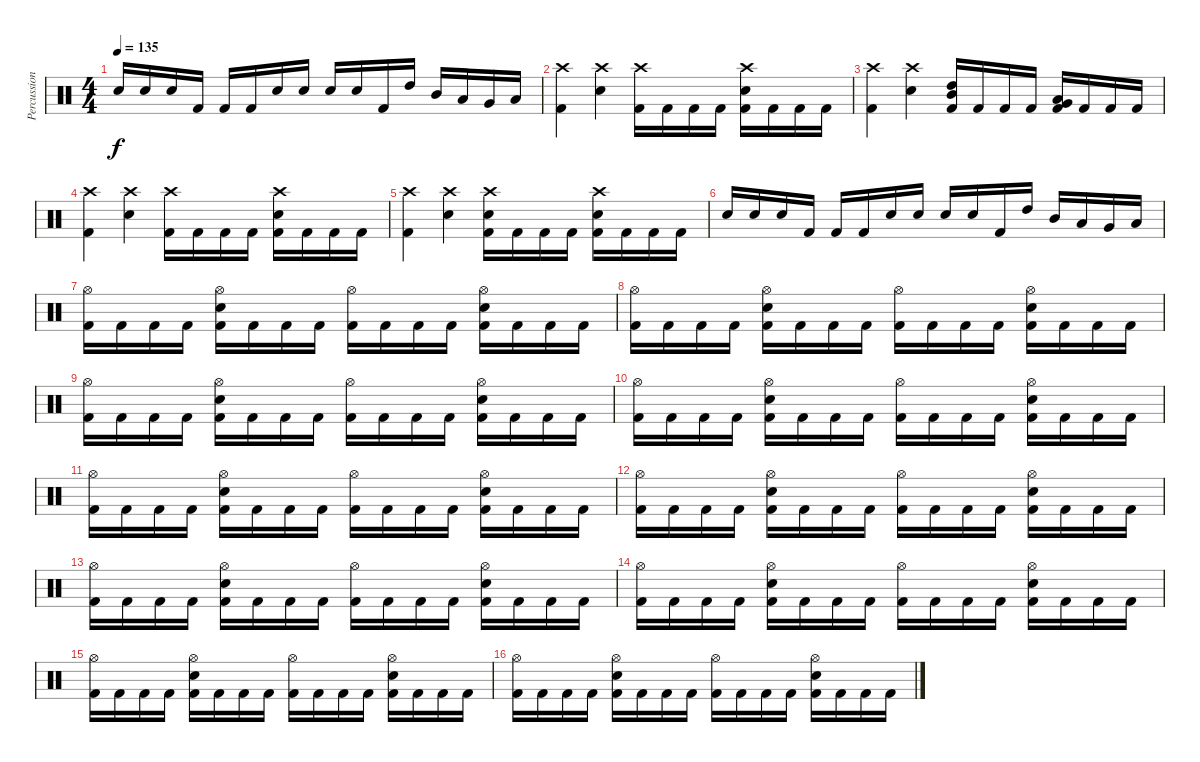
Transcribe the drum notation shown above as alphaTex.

\track ("Percussion" "Percussion") {instrument percussion}
\staff {score}
\articulation defaults
\ts (4 4)
\tempo 135
\clef neutral
\ks c "Electric Snare (hit)".16{dy f} "Electric Snare (hit)".16 "Electric Snare (hit)".16 "Kick (hit) 2".16 "Kick (hit) 2".16 "Kick (hit) 2".16 "Electric Snare (hit)".16 "Electric Snare (hit)".16 "Electric Snare (hit)".16 "Electric Snare (hit)".16 "Kick (hit) 2".16 "High Tom (hit)".16 "Mid Tom (hit)".16 "Low Tom (hit)".16 "Very Low Tom (hit)".16 "Low Floor Tom (hit)".16
|
("Crash high (hit)" "Kick (hit) 2").4 ("Crash high (hit)" "Electric Snare (hit)").4 ("Kick (hit) 2" "Crash high (hit)").16 "Kick (hit) 2".16 "Kick (hit) 2".16 "Kick (hit) 2".16 ("Kick (hit) 2" "Crash high (hit)" "Electric Snare (hit)").16 "Kick (hit) 2".16 "Kick (hit) 2".16 "Kick (hit) 2".16 |
("Crash high (hit)" "Kick (hit) 2").4 ("Crash high (hit)" "Electric Snare (hit)").4 ("Kick (hit) 2" "High Tom (hit)" "Mid Tom (hit)").16 "Kick (hit) 2".16 "Kick (hit) 2".16 "Kick (hit) 2".16 ("Kick (hit) 2" "Very Low Tom (hit)" "Low Tom (hit)").16 "Kick (hit) 2".16 "Kick (hit) 2".16 "Kick (hit) 2".16 |
("Crash high (hit)" "Kick (hit) 2").4 ("Crash high (hit)" "Electric Snare (hit)").4 ("Kick (hit) 2" "Crash high (hit)").16 "Kick (hit) 2".16 "Kick (hit) 2".16 "Kick (hit) 2".16 ("Kick (hit) 2" "Crash high (hit)" "Electric Snare (hit)").16 "Kick (hit) 2".16 "Kick (hit) 2".16 "Kick (hit) 2".16 |
("Crash high (hit)" "Kick (hit) 2").4 ("Crash high (hit)" "Electric Snare (hit)").4 ("Kick (hit) 2" "Electric Snare (hit)" "Crash high (hit)").16 "Kick (hit) 2".16 "Kick (hit) 2".16 "Kick (hit) 2".16 ("Kick (hit) 2" "Electric Snare (hit)" "Crash high (hit)").16 "Kick (hit) 2".16 "Kick (hit) 2".16 "Kick (hit) 2".16 |
"Electric Snare (hit)".16 "Electric Snare (hit)".16 "Electric Snare (hit)".16 "Kick (hit) 2".16 "Kick (hit) 2".16 "Kick (hit) 2".16 "Electric Snare (hit)".16 "Electric Snare (hit)".16 "Electric Snare (hit)".16 "Electric Snare (hit)".16 "Kick (hit) 2".16 "High Tom (hit)".16 "Mid Tom (hit)".16 "Low Tom (hit)".16 "Very Low Tom (hit)".16 "Low Floor Tom (hit)".16 |
("Kick (hit) 2" "Hi-Hat (open)").16 "Kick (hit) 2".16 "Kick (hit) 2".16 "Kick (hit) 2".16 ("Kick (hit) 2" "Hi-Hat (open)" "Electric Snare (hit)").16 "Kick (hit) 2".16 "Kick (hit) 2".16 "Kick (hit) 2".16 ("Kick (hit) 2" "Hi-Hat (open)").16 "Kick (hit) 2".16 "Kick (hit) 2".16 "Kick (hit) 2".16 ("Kick (hit) 2" "Hi-Hat (open)" "Electric Snare (hit)").16 "Kick (hit) 2".16 "Kick (hit) 2".16 "Kick (hit) 2".16 |
("Kick (hit) 2" "Hi-Hat (open)").16 "Kick (hit) 2".16 "Kick (hit) 2".16 "Kick (hit) 2".16 ("Kick (hit) 2" "Hi-Hat (open)" "Electric Snare (hit)").16 "Kick (hit) 2".16 "Kick (hit) 2".16 "Kick (hit) 2".16 ("Kick (hit) 2" "Hi-Hat (open)").16 "Kick (hit) 2".16 "Kick (hit) 2".16 "Kick (hit) 2".16 ("Kick (hit) 2" "Hi-Hat (open)" "Electric Snare (hit)").16 "Kick (hit) 2".16 "Kick (hit) 2".16 "Kick (hit) 2".16 |
("Kick (hit) 2" "Hi-Hat (open)").16 "Kick (hit) 2".16 "Kick (hit) 2".16 "Kick (hit) 2".16 ("Kick (hit) 2" "Hi-Hat (open)" "Electric Snare (hit)").16 "Kick (hit) 2".16 "Kick (hit) 2".16 "Kick (hit) 2".16 ("Kick (hit) 2" "Hi-Hat (open)").16 "Kick (hit) 2".16 "Kick (hit) 2".16 "Kick (hit) 2".16 ("Kick (hit) 2" "Hi-Hat (open)" "Electric Snare (hit)").16 "Kick (hit) 2".16 "Kick (hit) 2".16 "Kick (hit) 2".16 |
("Kick (hit) 2" "Hi-Hat (open)").16 "Kick (hit) 2".16 "Kick (hit) 2".16 "Kick (hit) 2".16 ("Kick (hit) 2" "Hi-Hat (open)" "Electric Snare (hit)").16 "Kick (hit) 2".16 "Kick (hit) 2".16 "Kick (hit) 2".16 ("Kick (hit) 2" "Hi-Hat (open)").16 "Kick (hit) 2".16 "Kick (hit) 2".16 "Kick (hit) 2".16 ("Kick (hit) 2" "Hi-Hat (open)" "Electric Snare (hit)").16 "Kick (hit) 2".16 "Kick (hit) 2".16 "Kick (hit) 2".16 |
("Kick (hit) 2" "Hi-Hat (open)").16 "Kick (hit) 2".16 "Kick (hit) 2".16 "Kick (hit) 2".16 ("Kick (hit) 2" "Hi-Hat (open)" "Electric Snare (hit)").16 "Kick (hit) 2".16 "Kick (hit) 2".16 "Kick (hit) 2".16 ("Kick (hit) 2" "Hi-Hat (open)").16 "Kick (hit) 2".16 "Kick (hit) 2".16 "Kick (hit) 2".16 ("Kick (hit) 2" "Hi-Hat (open)" "Electric Snare (hit)").16 "Kick (hit) 2".16 "Kick (hit) 2".16 "Kick (hit) 2".16 |
("Kick (hit) 2" "Hi-Hat (open)").16 "Kick (hit) 2".16 "Kick (hit) 2".16 "Kick (hit) 2".16 ("Kick (hit) 2" "Hi-Hat (open)" "Electric Snare (hit)").16 "Kick (hit) 2".16 "Kick (hit) 2".16 "Kick (hit) 2".16 ("Kick (hit) 2" "Hi-Hat (open)").16 "Kick (hit) 2".16 "Kick (hit) 2".16 "Kick (hit) 2".16 ("Kick (hit) 2" "Hi-Hat (open)" "Electric Snare (hit)").16 "Kick (hit) 2".16 "Kick (hit) 2".16 "Kick (hit) 2".16 |
("Kick (hit) 2" "Hi-Hat (open)").16 "Kick (hit) 2".16 "Kick (hit) 2".16 "Kick (hit) 2".16 ("Kick (hit) 2" "Hi-Hat (open)" "Electric Snare (hit)").16 "Kick (hit) 2".16 "Kick (hit) 2".16 "Kick (hit) 2".16 ("Kick (hit) 2" "Hi-Hat (open)").16 "Kick (hit) 2".16 "Kick (hit) 2".16 "Kick (hit) 2".16 ("Kick (hit) 2" "Hi-Hat (open)" "Electric Snare (hit)").16 "Kick (hit) 2".16 "Kick (hit) 2".16 "Kick (hit) 2".16 |
("Kick (hit) 2" "Hi-Hat (open)").16 "Kick (hit) 2".16 "Kick (hit) 2".16 "Kick (hit) 2".16 ("Kick (hit) 2" "Hi-Hat (open)" "Electric Snare (hit)").16 "Kick (hit) 2".16 "Kick (hit) 2".16 "Kick (hit) 2".16 ("Kick (hit) 2" "Hi-Hat (open)").16 "Kick (hit) 2".16 "Kick (hit) 2".16 "Kick (hit) 2".16 ("Kick (hit) 2" "Hi-Hat (open)" "Electric Snare (hit)").16 "Kick (hit) 2".16 "Kick (hit) 2".16 "Kick (hit) 2".16 |
("Kick (hit) 2" "Hi-Hat (open)").16 "Kick (hit) 2".16 "Kick (hit) 2".16 "Kick (hit) 2".16 ("Kick (hit) 2" "Hi-Hat (open)" "Electric Snare (hit)").16 "Kick (hit) 2".16 "Kick (hit) 2".16 "Kick (hit) 2".16 ("Kick (hit) 2" "Hi-Hat (open)").16 "Kick (hit) 2".16 "Kick (hit) 2".16 "Kick (hit) 2".16 ("Kick (hit) 2" "Hi-Hat (open)" "Electric Snare (hit)").16 "Kick (hit) 2".16 "Kick (hit) 2".16 "Kick (hit) 2".16 |
("Kick (hit) 2" "Hi-Hat (open)").16 "Kick (hit) 2".16 "Kick (hit) 2".16 "Kick (hit) 2".16 ("Kick (hit) 2" "Hi-Hat (open)" "Electric Snare (hit)").16 "Kick (hit) 2".16 "Kick (hit) 2".16 "Kick (hit) 2".16 ("Kick (hit) 2" "Hi-Hat (open)").16 "Kick (hit) 2".16 "Kick (hit) 2".16 "Kick (hit) 2".16 ("Kick (hit) 2" "Hi-Hat (open)" "Electric Snare (hit)").16 "Kick (hit) 2".16 "Kick (hit) 2".16 "Kick (hit) 2".16
